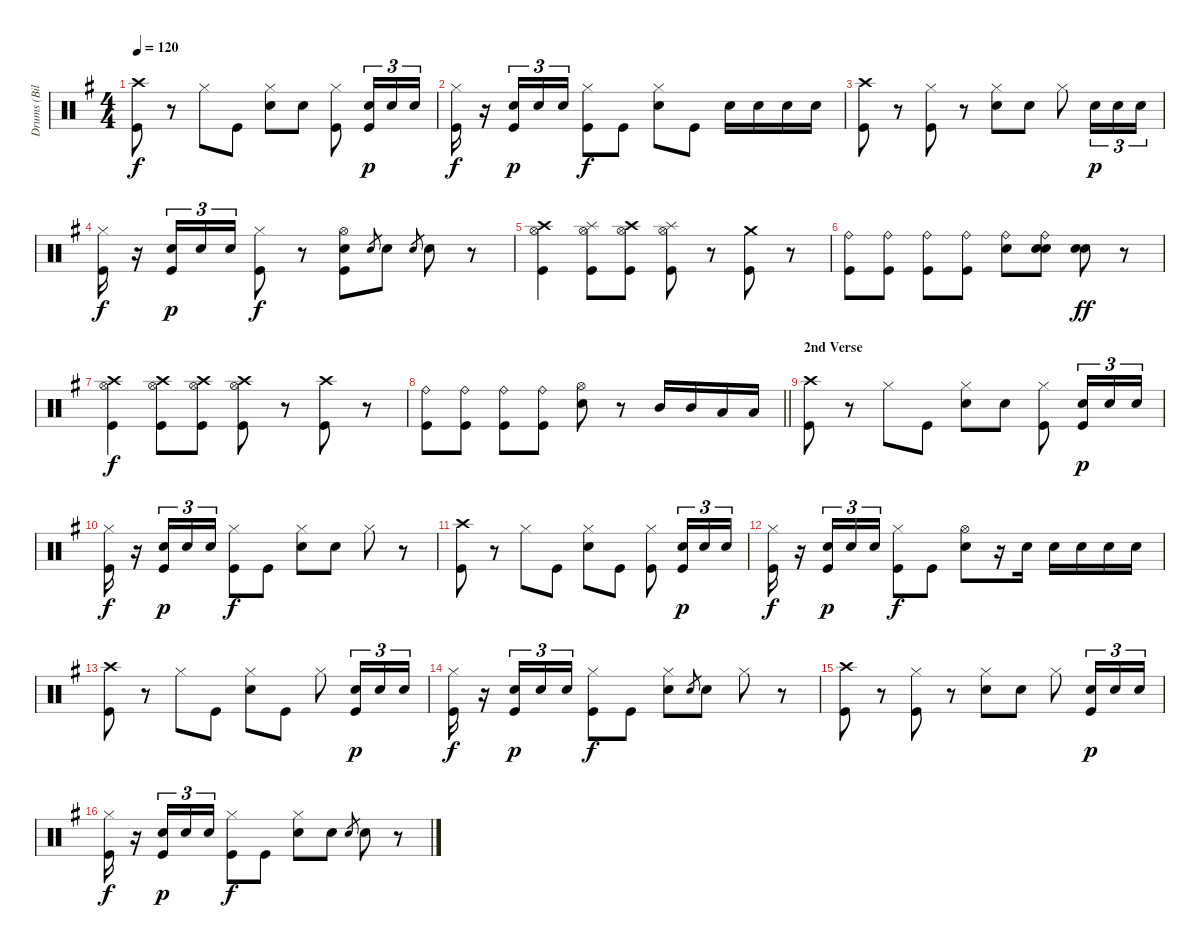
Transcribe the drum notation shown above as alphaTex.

\track ("Drums (Bill Ward)" "Drums (Bil") {instrument percussion}
\staff {score}
\articulation defaults
\ts (4 4)
\tempo 120
\clef neutral
\ks g
("Crash high (hit)" "Kick (hit)").8{dy f} r.8 "Hi-Hat (closed)".8 "Kick (hit)".8 ("Hi-Hat (closed)" "Electric Snare (hit)").8 "Electric Snare (hit)".8 ("Hi-Hat (closed)" "Kick (hit)").8 ("Electric Snare (hit)" "Kick (hit)").16{tu (3 2) dy p} "Electric Snare (hit)".16{tu (3 2)} "Electric Snare (hit)".16{tu (3 2)} |
("Hi-Hat (closed)" "Kick (hit)").16{dy f} r.16 ("Electric Snare (hit)" "Kick (hit)").16{tu (3 2) dy p} "Electric Snare (hit)".16{tu (3 2)} "Electric Snare (hit)".16{tu (3 2)} ("Hi-Hat (closed)" "Kick (hit)").8{dy f} "Kick (hit)".8 ("Hi-Hat (closed)" "Electric Snare (hit)").8 "Kick (hit)".8 "Electric Snare (hit)".16 "Electric Snare (hit)".16 "Electric Snare (hit)".16 "Electric Snare (hit)".16 |
("Crash high (hit)" "Kick (hit)").8 r.8 ("Hi-Hat (closed)" "Kick (hit)").8 r.8 ("Hi-Hat (closed)" "Electric Snare (hit)").8 "Electric Snare (hit)".8 "Hi-Hat (closed)".8 "Electric Snare (hit)".16{tu (3 2) dy p} "Electric Snare (hit)".16{tu (3 2)} "Electric Snare (hit)".16{tu (3 2)} |
("Hi-Hat (closed)" "Kick (hit)").16{dy f} r.16 ("Electric Snare (hit)" "Kick (hit)").16{tu (3 2) dy p} "Electric Snare (hit)".16{tu (3 2)} "Electric Snare (hit)".16{tu (3 2)} ("Hi-Hat (closed)" "Kick (hit)").8{dy f} r.8 ("Hi-Hat (open)" "Electric Snare (hit)" "Kick (hit)").8 "Electric Snare (hit)".8{gr} "Electric Snare (hit)".8 "Electric Snare (hit)".8{gr} "Electric Snare (hit)".8 r.8 |
("Crash high (hit)" "Hi-Hat (open)" "Kick (hit)").4 ("Splash (hit)" "Hi-Hat (open)" "Kick (hit)").8 ("Crash high (hit)" "Hi-Hat (open)" "Kick (hit)").8 ("Splash (hit)" "Hi-Hat (open)" "Kick (hit)").8 r.8 ("Crash medium (hit)" "Kick (hit)").8 r.8 |
("Ride (bell)" "Kick (hit)").8 ("Ride (bell)" "Kick (hit)").8 ("Ride (bell)" "Kick (hit)").8 ("Ride (bell)" "Kick (hit)").8 ("Ride (bell)" "Electric Snare (hit)").8 ("Ride (bell)" "Electric Snare (hit)" "Electric Snare (hit)").8 ("Electric Snare (hit)" "Electric Snare (hit)").8{dy ff} r.8 |
("Crash high (hit)" "Hi-Hat (open)" "Kick (hit)").4{dy f} ("Crash high (hit)" "Hi-Hat (open)" "Kick (hit)").8 ("Crash high (hit)" "Hi-Hat (open)" "Kick (hit)").8 ("Crash high (hit)" "Hi-Hat (open)" "Kick (hit)").8 r.8 ("Crash high (hit)" "Kick (hit)").8 r.8 |
\barLineRight lightlight
("Ride (bell)" "Kick (hit)").8 ("Ride (bell)" "Kick (hit)").8 ("Ride (bell)" "Kick (hit)").8 ("Ride (bell)" "Kick (hit)").8 ("Hi-Hat (open)" "Electric Snare (hit)").8 r.8 "Mid Tom (hit)".16 "Mid Tom (hit)".16 "Low Tom (hit)".16 "Low Tom (hit)".16 |
\section ("" "2nd Verse")
("Crash high (hit)" "Kick (hit)").8 r.8 "Hi-Hat (closed)".8 "Kick (hit)".8 ("Hi-Hat (closed)" "Electric Snare (hit)").8 "Electric Snare (hit)".8 ("Hi-Hat (closed)" "Kick (hit)").8 ("Electric Snare (hit)" "Kick (hit)").16{tu (3 2) dy p} "Electric Snare (hit)".16{tu (3 2)} "Electric Snare (hit)".16{tu (3 2)} |
("Hi-Hat (closed)" "Kick (hit)").16{dy f} r.16 ("Electric Snare (hit)" "Kick (hit)").16{tu (3 2) dy p} "Electric Snare (hit)".16{tu (3 2)} "Electric Snare (hit)".16{tu (3 2)} ("Hi-Hat (closed)" "Kick (hit)").8{dy f} "Kick (hit)".8 ("Hi-Hat (closed)" "Electric Snare (hit)").8 "Electric Snare (hit)".8 "Hi-Hat (closed)".8 r.8 |
("Crash high (hit)" "Kick (hit)").8 r.8 "Hi-Hat (closed)".8 "Kick (hit)".8 ("Hi-Hat (closed)" "Electric Snare (hit)").8 "Kick (hit)".8 ("Hi-Hat (closed)" "Kick (hit)").8 ("Electric Snare (hit)" "Kick (hit)").16{tu (3 2) dy p} "Electric Snare (hit)".16{tu (3 2)} "Electric Snare (hit)".16{tu (3 2)} |
("Hi-Hat (closed)" "Kick (hit)").16{dy f} r.16 ("Electric Snare (hit)" "Kick (hit)").16{tu (3 2) dy p} "Electric Snare (hit)".16{tu (3 2)} "Electric Snare (hit)".16{tu (3 2)} ("Hi-Hat (closed)" "Kick (hit)").8{dy f} "Kick (hit)".8 ("Hi-Hat (open)" "Electric Snare (hit)").8 r.16 "Electric Snare (hit)".16 "Electric Snare (hit)".16 "Electric Snare (hit)".16 "Electric Snare (hit)".16 "Electric Snare (hit)".16 |
("Crash high (hit)" "Kick (hit)").8 r.8 "Hi-Hat (closed)".8 "Kick (hit)".8 ("Hi-Hat (closed)" "Electric Snare (hit)").8 "Kick (hit)".8 "Hi-Hat (closed)".8 ("Electric Snare (hit)" "Kick (hit)").16{tu (3 2) dy p} "Electric Snare (hit)".16{tu (3 2)} "Electric Snare (hit)".16{tu (3 2)} |
("Hi-Hat (closed)" "Kick (hit)").16{dy f} r.16 ("Electric Snare (hit)" "Kick (hit)").16{tu (3 2) dy p} "Electric Snare (hit)".16{tu (3 2)} "Electric Snare (hit)".16{tu (3 2)} ("Hi-Hat (closed)" "Kick (hit)").8{dy f} "Kick (hit)".8 ("Hi-Hat (closed)" "Electric Snare (hit)").8 "Electric Snare (hit)".8{gr} "Electric Snare (hit)".8 "Hi-Hat (closed)".8 r.8 |
("Crash high (hit)" "Kick (hit)").8 r.8 ("Hi-Hat (closed)" "Kick (hit)").8 r.8 ("Hi-Hat (closed)" "Electric Snare (hit)").8 "Electric Snare (hit)".8 "Hi-Hat (closed)".8 ("Electric Snare (hit)" "Kick (hit)").16{tu (3 2) dy p} "Electric Snare (hit)".16{tu (3 2)} "Electric Snare (hit)".16{tu (3 2)} |
("Hi-Hat (closed)" "Kick (hit)").16{dy f} r.16 ("Electric Snare (hit)" "Kick (hit)").16{tu (3 2) dy p} "Electric Snare (hit)".16{tu (3 2)} "Electric Snare (hit)".16{tu (3 2)} ("Hi-Hat (closed)" "Kick (hit)").8{dy f} "Kick (hit)".8 ("Hi-Hat (closed)" "Electric Snare (hit)").8 "Electric Snare (hit)".8 "Electric Snare (hit)".8{gr} "Electric Snare (hit)".8 r.8
